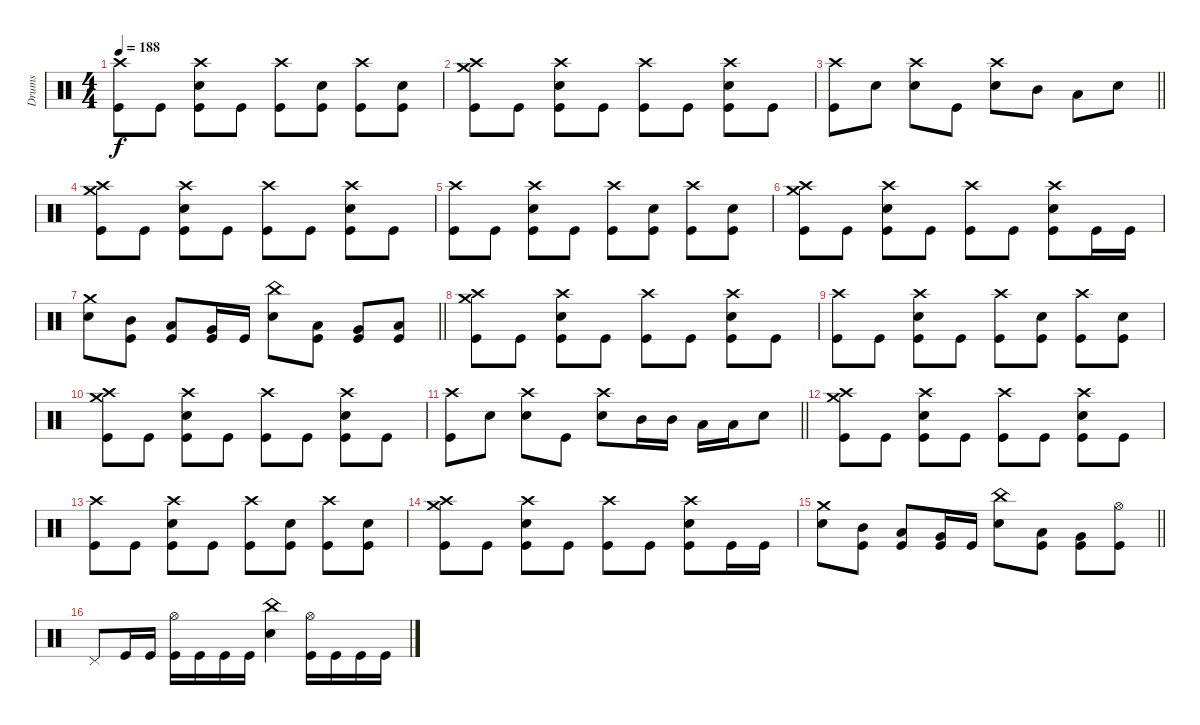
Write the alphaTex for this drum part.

\track ("Drums" "Drums") {instrument percussion}
\staff
\articulation defaults
\ts (4 4)
\tempo 188
\clef neutral
\ks c
("Crash high (hit)" "Kick (hit)").8{dy f} "Kick (hit)".8 ("Crash high (hit)" "Electric Snare (hit)" "Kick (hit)").8 "Kick (hit)".8 ("Crash high (hit)" "Kick (hit)").8 ("Electric Snare (hit)" "Kick (hit)").8 ("Crash high (hit)" "Kick (hit)").8 ("Electric Snare (hit)" "Kick (hit)").8 |
("Crash high (hit)" "Crash medium (hit)" "Kick (hit)").8 "Kick (hit)".8 ("Crash high (hit)" "Electric Snare (hit)" "Kick (hit)").8 "Kick (hit)".8 ("Crash high (hit)" "Kick (hit)").8 "Kick (hit)".8 ("Crash high (hit)" "Electric Snare (hit)" "Kick (hit)").8 "Kick (hit)".8 |
\barLineRight lightlight
("Crash high (hit)" "Kick (hit)").8 "Electric Snare (hit)".8 ("Crash high (hit)" "Electric Snare (hit)").8 "Kick (hit)".8 ("Crash high (hit)" "Electric Snare (hit)").8 "Mid Tom (hit)".8 "Low Tom (hit)".8 "Electric Snare (hit)".8 |
("Crash high (hit)" "Crash medium (hit)" "Kick (hit)").8 "Kick (hit)".8 ("Crash high (hit)" "Electric Snare (hit)" "Kick (hit)").8 "Kick (hit)".8 ("Crash high (hit)" "Kick (hit)").8 "Kick (hit)".8 ("Crash high (hit)" "Electric Snare (hit)" "Kick (hit)").8 "Kick (hit)".8 |
("Crash high (hit)" "Kick (hit)").8 "Kick (hit)".8 ("Crash high (hit)" "Electric Snare (hit)" "Kick (hit)").8 "Kick (hit)".8 ("Crash high (hit)" "Kick (hit)").8 ("Electric Snare (hit)" "Kick (hit)").8 ("Crash high (hit)" "Kick (hit)").8 ("Electric Snare (hit)" "Kick (hit)").8 |
("Crash high (hit)" "Crash medium (hit)" "Kick (hit)").8 "Kick (hit)".8 ("Crash high (hit)" "Electric Snare (hit)" "Kick (hit)").8 "Kick (hit)".8 ("Crash high (hit)" "Kick (hit)").8 "Kick (hit)".8 ("Crash high (hit)" "Electric Snare (hit)" "Kick (hit)").8 "Kick (hit)".16 "Kick (hit)".16 |
\barLineRight lightlight
("Crash medium (hit)" "Electric Snare (hit)").8 ("Mid Tom (hit)" "Kick (hit)").8 ("Low Tom (hit)" "Kick (hit)").8 ("Very Low Tom (hit)" "Kick (hit)").16 "Kick (hit)".16 ("China (hit)" "Electric Snare (hit)").8 ("Low Tom (hit)" "Kick (hit)").8 ("Very Low Tom (hit)" "Kick (hit)").8 ("Low Floor Tom (hit)" "Kick (hit)").8 |
("Crash high (hit)" "Crash medium (hit)" "Kick (hit)").8 "Kick (hit)".8 ("Crash high (hit)" "Electric Snare (hit)" "Kick (hit)").8 "Kick (hit)".8 ("Crash high (hit)" "Kick (hit)").8 "Kick (hit)".8 ("Crash high (hit)" "Electric Snare (hit)" "Kick (hit)").8 "Kick (hit)".8 |
("Crash high (hit)" "Kick (hit)").8 "Kick (hit)".8 ("Crash high (hit)" "Electric Snare (hit)" "Kick (hit)").8 "Kick (hit)".8 ("Crash high (hit)" "Kick (hit)").8 ("Electric Snare (hit)" "Kick (hit)").8 ("Crash high (hit)" "Kick (hit)").8 ("Electric Snare (hit)" "Kick (hit)").8 |
("Crash high (hit)" "Crash medium (hit)" "Kick (hit)").8 "Kick (hit)".8 ("Crash high (hit)" "Electric Snare (hit)" "Kick (hit)").8 "Kick (hit)".8 ("Crash high (hit)" "Kick (hit)").8 "Kick (hit)".8 ("Crash high (hit)" "Electric Snare (hit)" "Kick (hit)").8 "Kick (hit)".8 |
\barLineRight lightlight
("Crash high (hit)" "Kick (hit)").8 "Electric Snare (hit)".8 ("Crash high (hit)" "Electric Snare (hit)").8 "Kick (hit)".8 ("Crash high (hit)" "Electric Snare (hit)").8 "Mid Tom (hit)".16 "Mid Tom (hit)".16 "Low Tom (hit)".16 "Low Tom (hit)".16 "Electric Snare (hit)".8 |
("Crash high (hit)" "Crash medium (hit)" "Kick (hit)").8 "Kick (hit)".8 ("Crash high (hit)" "Electric Snare (hit)" "Kick (hit)").8 "Kick (hit)".8 ("Crash high (hit)" "Kick (hit)").8 "Kick (hit)".8 ("Crash high (hit)" "Electric Snare (hit)" "Kick (hit)").8 "Kick (hit)".8 |
("Crash high (hit)" "Kick (hit)").8 "Kick (hit)".8 ("Crash high (hit)" "Electric Snare (hit)" "Kick (hit)").8 "Kick (hit)".8 ("Crash high (hit)" "Kick (hit)").8 ("Electric Snare (hit)" "Kick (hit)").8 ("Crash high (hit)" "Kick (hit)").8 ("Electric Snare (hit)" "Kick (hit)").8 |
("Crash high (hit)" "Crash medium (hit)" "Kick (hit)").8 "Kick (hit)".8 ("Crash high (hit)" "Electric Snare (hit)" "Kick (hit)").8 "Kick (hit)".8 ("Crash high (hit)" "Kick (hit)").8 "Kick (hit)".8 ("Crash high (hit)" "Electric Snare (hit)" "Kick (hit)").8 "Kick (hit)".16 "Kick (hit)".16 |
\barLineRight lightlight
("Crash medium (hit)" "Electric Snare (hit)").8 ("Mid Tom (hit)" "Kick (hit)").8 ("Low Tom (hit)" "Kick (hit)").8 ("Very Low Tom (hit)" "Kick (hit)").16 "Kick (hit)".16 ("China (hit)" "Electric Snare (hit)").8 ("Low Tom (hit)" "Kick (hit)").8 ("Very Low Tom (hit)" "Kick (hit)").8 ("Hi-Hat (open)" "Kick (hit)").8 |
\section ("" "")
"Pedal Hi-Hat (hit)".8 "Kick (hit)".16 "Kick (hit)".16 ("Hi-Hat (open)" "Kick (hit)").16 "Kick (hit)".16 "Kick (hit)".16 "Kick (hit)".16 ("China (hit)" "Electric Snare (hit)").4 ("Hi-Hat (open)" "Kick (hit)").16 "Kick (hit)".16 "Kick (hit)".16 "Kick (hit)".16
